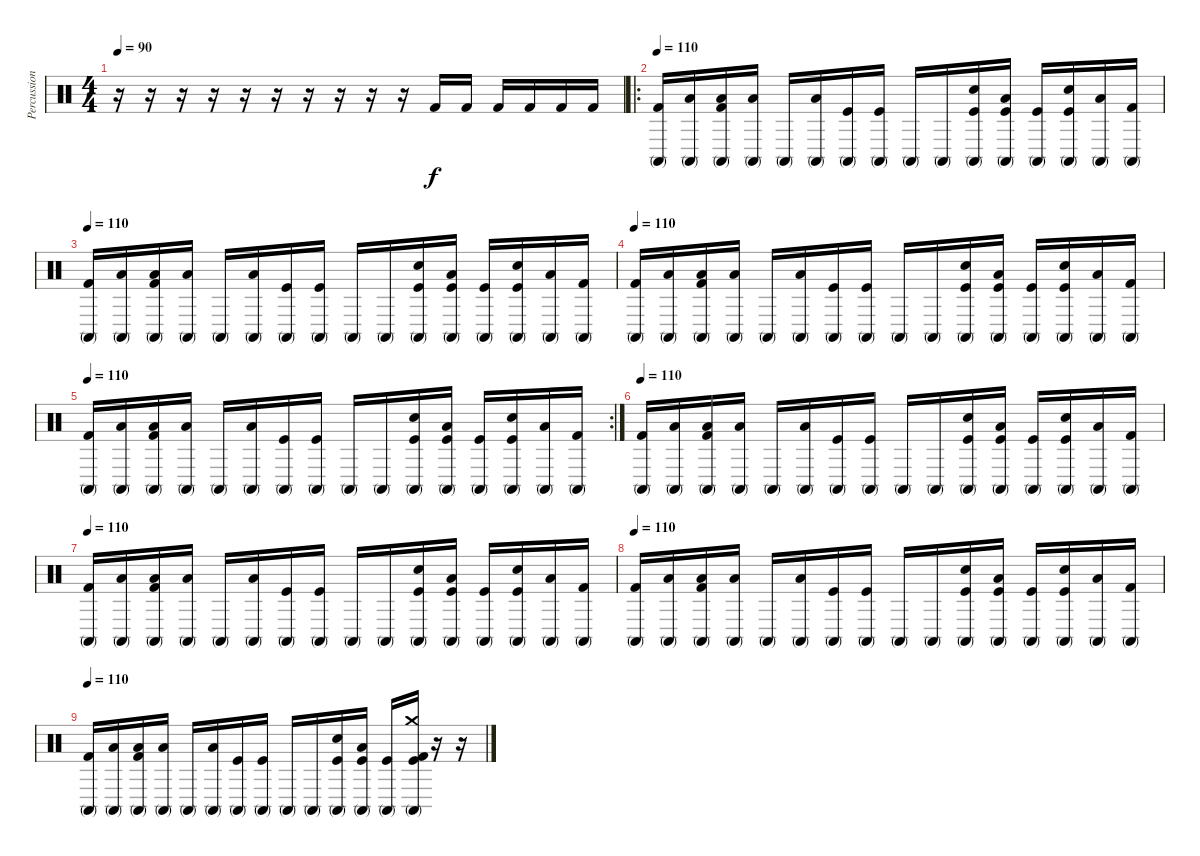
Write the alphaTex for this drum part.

\track ("Percussion" "Percussion") {instrument percussion}
\staff {score}
\articulation defaults
\ts (4 4)
\tempo 90
\clef neutral
\ks c
r.16{dy f} r.16 r.16 r.16 r.16 r.16 r.16 r.16 r.16 r.16 "Kick (hit) 2".16 "Kick (hit) 2".16 "Kick (hit) 2".16 "Kick (hit) 2".16 "Kick (hit) 2".16 "Kick (hit) 2".16 |
\ro
\tempo 110
("Conga high (mute)" "Kick (hit) 2").16 ("Conga high (mute)" "Low Tom (hit)").16 ("Conga high (mute)" "Low Tom (hit)" "Kick (hit) 2").16 ("Conga high (mute)" "Low Tom (hit)").16 "Conga high (mute)".16 ("Conga high (mute)" "Low Tom (hit)").16 ("Conga high (mute)" "Kick (hit)").16 ("Conga high (mute)" "Kick (hit)").16 "Conga high (mute)".16 "Conga high (mute)".16 ("Conga high (mute)" "Snare (hit) 2" "Kick (hit)").16 ("Conga high (mute)" "Low Tom (hit)" "Kick (hit)").16 ("Conga high (mute)" "Kick (hit)").16 ("Conga high (mute)" "Snare (hit) 2" "Kick (hit)").16 ("Conga high (mute)" "Low Tom (hit)").16 ("Conga high (mute)" "Kick (hit) 2").16 |
\tempo 110
("Conga high (mute)" "Kick (hit) 2").16 ("Conga high (mute)" "Low Tom (hit)").16 ("Conga high (mute)" "Low Tom (hit)" "Kick (hit) 2").16 ("Conga high (mute)" "Low Tom (hit)").16 "Conga high (mute)".16 ("Conga high (mute)" "Low Tom (hit)").16 ("Conga high (mute)" "Kick (hit)").16 ("Conga high (mute)" "Kick (hit)").16 "Conga high (mute)".16 "Conga high (mute)".16 ("Conga high (mute)" "Snare (hit) 2" "Kick (hit)").16 ("Conga high (mute)" "Low Tom (hit)" "Kick (hit)").16 ("Conga high (mute)" "Kick (hit)").16 ("Conga high (mute)" "Snare (hit) 2" "Kick (hit)").16 ("Conga high (mute)" "Low Tom (hit)").16 ("Conga high (mute)" "Kick (hit) 2").16 |
\tempo 110
("Conga high (mute)" "Kick (hit) 2").16 ("Conga high (mute)" "Low Tom (hit)").16 ("Conga high (mute)" "Low Tom (hit)" "Kick (hit) 2").16 ("Conga high (mute)" "Low Tom (hit)").16 "Conga high (mute)".16 ("Conga high (mute)" "Low Tom (hit)").16 ("Conga high (mute)" "Kick (hit)").16 ("Conga high (mute)" "Kick (hit)").16 "Conga high (mute)".16 "Conga high (mute)".16 ("Conga high (mute)" "Snare (hit) 2" "Kick (hit)").16 ("Conga high (mute)" "Low Tom (hit)" "Kick (hit)").16 ("Conga high (mute)" "Kick (hit)").16 ("Conga high (mute)" "Snare (hit) 2" "Kick (hit)").16 ("Conga high (mute)" "Low Tom (hit)").16 ("Conga high (mute)" "Kick (hit) 2").16 |
\rc 2
\tempo 110
("Conga high (mute)" "Kick (hit) 2").16 ("Conga high (mute)" "Low Tom (hit)").16 ("Conga high (mute)" "Low Tom (hit)" "Kick (hit) 2").16 ("Conga high (mute)" "Low Tom (hit)").16 "Conga high (mute)".16 ("Conga high (mute)" "Low Tom (hit)").16 ("Conga high (mute)" "Kick (hit)").16 ("Conga high (mute)" "Kick (hit)").16 "Conga high (mute)".16 "Conga high (mute)".16 ("Conga high (mute)" "Snare (hit) 2" "Kick (hit)").16 ("Conga high (mute)" "Low Tom (hit)" "Kick (hit)").16 ("Conga high (mute)" "Kick (hit)").16 ("Conga high (mute)" "Snare (hit) 2" "Kick (hit)").16 ("Conga high (mute)" "Low Tom (hit)").16 ("Conga high (mute)" "Kick (hit) 2").16 |
\tempo 110
("Conga high (mute)" "Kick (hit) 2").16 ("Conga high (mute)" "Low Tom (hit)").16 ("Conga high (mute)" "Low Tom (hit)" "Kick (hit) 2").16 ("Conga high (mute)" "Low Tom (hit)").16 "Conga high (mute)".16 ("Conga high (mute)" "Low Tom (hit)").16 ("Conga high (mute)" "Kick (hit)").16 ("Conga high (mute)" "Kick (hit)").16 "Conga high (mute)".16 "Conga high (mute)".16 ("Conga high (mute)" "Snare (hit) 2" "Kick (hit)").16 ("Conga high (mute)" "Low Tom (hit)" "Kick (hit)").16 ("Conga high (mute)" "Kick (hit)").16 ("Conga high (mute)" "Snare (hit) 2" "Kick (hit)").16 ("Conga high (mute)" "Low Tom (hit)").16 ("Conga high (mute)" "Kick (hit) 2").16 |
\tempo 110
("Conga high (mute)" "Kick (hit) 2").16 ("Conga high (mute)" "Low Tom (hit)").16 ("Conga high (mute)" "Low Tom (hit)" "Kick (hit) 2").16 ("Conga high (mute)" "Low Tom (hit)").16 "Conga high (mute)".16 ("Conga high (mute)" "Low Tom (hit)").16 ("Conga high (mute)" "Kick (hit)").16 ("Conga high (mute)" "Kick (hit)").16 "Conga high (mute)".16 "Conga high (mute)".16 ("Conga high (mute)" "Snare (hit) 2" "Kick (hit)").16 ("Conga high (mute)" "Low Tom (hit)" "Kick (hit)").16 ("Conga high (mute)" "Kick (hit)").16 ("Conga high (mute)" "Snare (hit) 2" "Kick (hit)").16 ("Conga high (mute)" "Low Tom (hit)").16 ("Conga high (mute)" "Kick (hit) 2").16 |
\tempo 110
("Conga high (mute)" "Kick (hit) 2").16 ("Conga high (mute)" "Low Tom (hit)").16 ("Conga high (mute)" "Low Tom (hit)" "Kick (hit) 2").16 ("Conga high (mute)" "Low Tom (hit)").16 "Conga high (mute)".16 ("Conga high (mute)" "Low Tom (hit)").16 ("Conga high (mute)" "Kick (hit)").16 ("Conga high (mute)" "Kick (hit)").16 "Conga high (mute)".16 "Conga high (mute)".16 ("Conga high (mute)" "Snare (hit) 2" "Kick (hit)").16 ("Conga high (mute)" "Low Tom (hit)" "Kick (hit)").16 ("Conga high (mute)" "Kick (hit)").16 ("Conga high (mute)" "Snare (hit) 2" "Kick (hit)").16 ("Conga high (mute)" "Low Tom (hit)").16 ("Conga high (mute)" "Kick (hit) 2").16 |
\tempo 110
("Conga high (mute)" "Kick (hit) 2").16 ("Conga high (mute)" "Low Tom (hit)").16 ("Conga high (mute)" "Low Tom (hit)" "Kick (hit) 2").16 ("Conga high (mute)" "Low Tom (hit)").16 "Conga high (mute)".16 ("Conga high (mute)" "Low Tom (hit)").16 ("Conga high (mute)" "Kick (hit)").16 ("Conga high (mute)" "Kick (hit)").16 "Conga high (mute)".16 "Conga high (mute)".16 ("Conga high (mute)" "Snare (hit) 2" "Kick (hit)").16 ("Conga high (mute)" "Low Tom (hit)" "Kick (hit)").16 ("Conga high (mute)" "Kick (hit)").16 ("Conga high (mute)" "Crash medium (hit)" "Kick (hit) 2" "Kick (hit)").16 r.16 r.16
